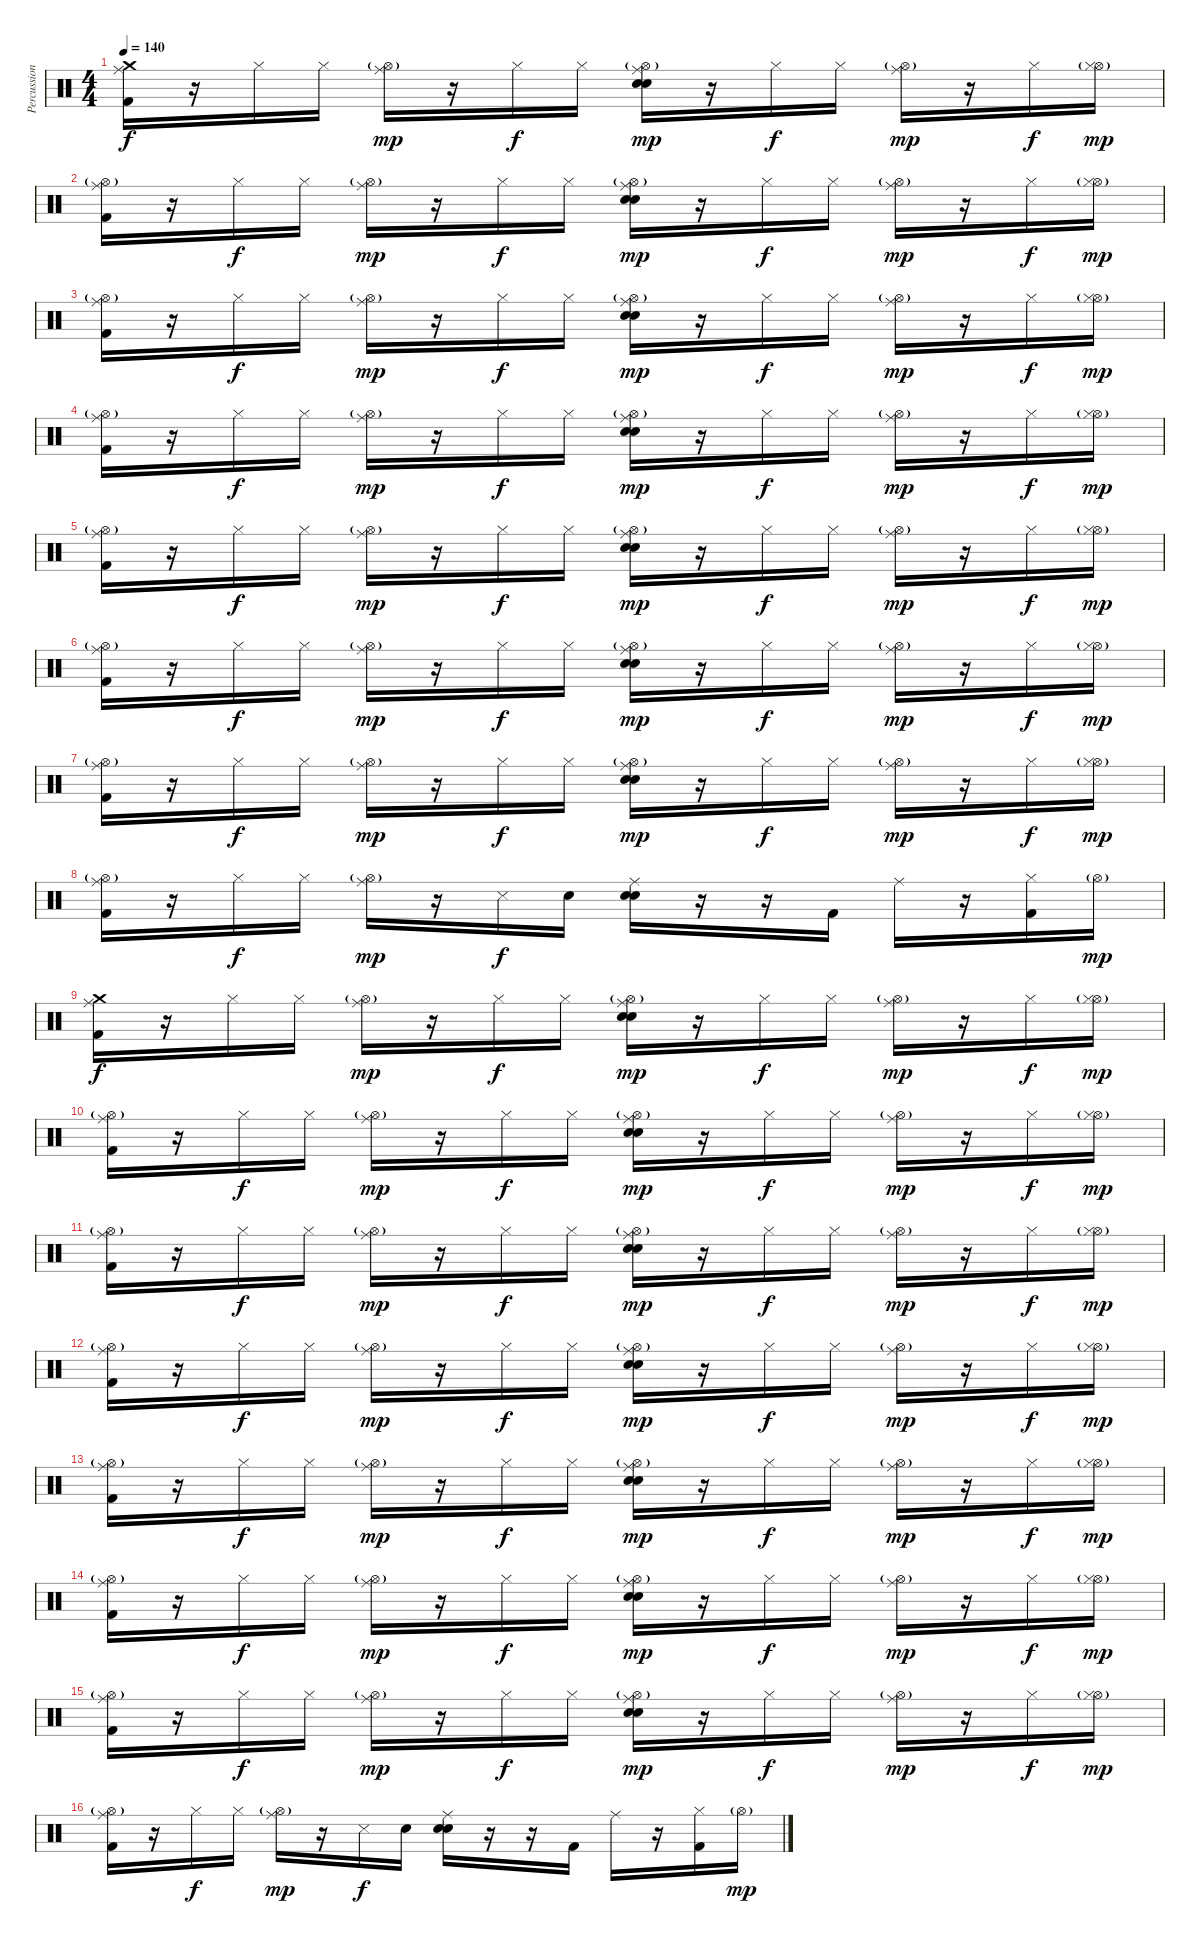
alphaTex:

\track ("Percussion" "Percussion") {instrument percussion}
\staff {score}
\articulation defaults
\ts (4 4)
\tempo 140
\clef neutral
\ks c
("Crash medium (hit)" "Ride (middle)" "Kick (hit) 2").16{dy f} r.16 "Hi-Hat (closed)".16 "Hi-Hat (closed)".16 ("Hi-Hat (open)"{g} "Ride (middle)").16{dy mp} r.16 "Hi-Hat (closed)".16{dy f} "Hi-Hat (closed)".16 ("Hi-Hat (open)"{g} "Ride (middle)" "Hand Clap (hit)" "Snare (hit) 2").16{dy mp} r.16 "Hi-Hat (closed)".16{dy f} "Hi-Hat (closed)".16 ("Hi-Hat (open)"{g} "Ride (middle)").16{dy mp} r.16 "Hi-Hat (closed)".16{dy f} ("Hi-Hat (open)"{g} "Hi-Hat (closed)").16{dy mp} |
("Hi-Hat (open)"{g} "Ride (middle)" "Kick (hit) 2").16 r.16 "Hi-Hat (closed)".16{dy f} "Hi-Hat (closed)".16 ("Hi-Hat (open)"{g} "Ride (middle)").16{dy mp} r.16 "Hi-Hat (closed)".16{dy f} "Hi-Hat (closed)".16 ("Hi-Hat (open)"{g} "Ride (middle)" "Hand Clap (hit)" "Snare (hit) 2").16{dy mp} r.16 "Hi-Hat (closed)".16{dy f} "Hi-Hat (closed)".16 ("Hi-Hat (open)"{g} "Ride (middle)").16{dy mp} r.16 "Hi-Hat (closed)".16{dy f} ("Hi-Hat (open)"{g} "Hi-Hat (closed)").16{dy mp} |
("Hi-Hat (open)"{g} "Ride (middle)" "Kick (hit) 2").16 r.16 "Hi-Hat (closed)".16{dy f} "Hi-Hat (closed)".16 ("Hi-Hat (open)"{g} "Ride (middle)").16{dy mp} r.16 "Hi-Hat (closed)".16{dy f} "Hi-Hat (closed)".16 ("Hi-Hat (open)"{g} "Ride (middle)" "Hand Clap (hit)" "Snare (hit) 2").16{dy mp} r.16 "Hi-Hat (closed)".16{dy f} "Hi-Hat (closed)".16 ("Hi-Hat (open)"{g} "Ride (middle)").16{dy mp} r.16 "Hi-Hat (closed)".16{dy f} ("Hi-Hat (open)"{g} "Hi-Hat (closed)").16{dy mp} |
("Hi-Hat (open)"{g} "Ride (middle)" "Kick (hit) 2").16 r.16 "Hi-Hat (closed)".16{dy f} "Hi-Hat (closed)".16 ("Hi-Hat (open)"{g} "Ride (middle)").16{dy mp} r.16 "Hi-Hat (closed)".16{dy f} "Hi-Hat (closed)".16 ("Hi-Hat (open)"{g} "Ride (middle)" "Hand Clap (hit)" "Snare (hit) 2").16{dy mp} r.16 "Hi-Hat (closed)".16{dy f} "Hi-Hat (closed)".16 ("Hi-Hat (open)"{g} "Ride (middle)").16{dy mp} r.16 "Hi-Hat (closed)".16{dy f} ("Hi-Hat (open)"{g} "Hi-Hat (closed)").16{dy mp} |
("Hi-Hat (open)"{g} "Ride (middle)" "Kick (hit) 2").16 r.16 "Hi-Hat (closed)".16{dy f} "Hi-Hat (closed)".16 ("Hi-Hat (open)"{g} "Ride (middle)").16{dy mp} r.16 "Hi-Hat (closed)".16{dy f} "Hi-Hat (closed)".16 ("Hi-Hat (open)"{g} "Ride (middle)" "Hand Clap (hit)" "Snare (hit) 2").16{dy mp} r.16 "Hi-Hat (closed)".16{dy f} "Hi-Hat (closed)".16 ("Hi-Hat (open)"{g} "Ride (middle)").16{dy mp} r.16 "Hi-Hat (closed)".16{dy f} ("Hi-Hat (open)"{g} "Hi-Hat (closed)").16{dy mp} |
("Hi-Hat (open)"{g} "Ride (middle)" "Kick (hit) 2").16 r.16 "Hi-Hat (closed)".16{dy f} "Hi-Hat (closed)".16 ("Hi-Hat (open)"{g} "Ride (middle)").16{dy mp} r.16 "Hi-Hat (closed)".16{dy f} "Hi-Hat (closed)".16 ("Hi-Hat (open)"{g} "Ride (middle)" "Hand Clap (hit)" "Snare (hit) 2").16{dy mp} r.16 "Hi-Hat (closed)".16{dy f} "Hi-Hat (closed)".16 ("Hi-Hat (open)"{g} "Ride (middle)").16{dy mp} r.16 "Hi-Hat (closed)".16{dy f} ("Hi-Hat (open)"{g} "Hi-Hat (closed)").16{dy mp} |
("Hi-Hat (open)"{g} "Ride (middle)" "Kick (hit) 2").16 r.16 "Hi-Hat (closed)".16{dy f} "Hi-Hat (closed)".16 ("Hi-Hat (open)"{g} "Ride (middle)").16{dy mp} r.16 "Hi-Hat (closed)".16{dy f} "Hi-Hat (closed)".16 ("Hi-Hat (open)"{g} "Ride (middle)" "Hand Clap (hit)" "Snare (hit) 2").16{dy mp} r.16 "Hi-Hat (closed)".16{dy f} "Hi-Hat (closed)".16 ("Hi-Hat (open)"{g} "Ride (middle)").16{dy mp} r.16 "Hi-Hat (closed)".16{dy f} ("Hi-Hat (open)"{g} "Hi-Hat (closed)").16{dy mp} |
("Hi-Hat (open)"{g} "Ride (middle)" "Kick (hit) 2").16 r.16 "Hi-Hat (closed)".16{dy f} "Hi-Hat (closed)".16 ("Hi-Hat (open)"{g} "Ride (middle)").16{dy mp} r.16 "Snare (side stick) 3".16{dy f} "Hand Clap (hit)".16 ("Ride (middle)" "Snare (hit) 2" "Hand Clap (hit)").16 r.16 r.16 "Kick (hit) 2".16 "Ride (middle)".16 r.16 ("Hi-Hat (closed)" "Kick (hit) 2").16 "Hi-Hat (open)"{g}.16{dy mp} |
("Crash medium (hit)" "Ride (middle)" "Kick (hit) 2").16{dy f} r.16 "Hi-Hat (closed)".16 "Hi-Hat (closed)".16 ("Hi-Hat (open)"{g} "Ride (middle)").16{dy mp} r.16 "Hi-Hat (closed)".16{dy f} "Hi-Hat (closed)".16 ("Hi-Hat (open)"{g} "Ride (middle)" "Hand Clap (hit)" "Snare (hit) 2").16{dy mp} r.16 "Hi-Hat (closed)".16{dy f} "Hi-Hat (closed)".16 ("Hi-Hat (open)"{g} "Ride (middle)").16{dy mp} r.16 "Hi-Hat (closed)".16{dy f} ("Hi-Hat (open)"{g} "Hi-Hat (closed)").16{dy mp} |
("Hi-Hat (open)"{g} "Ride (middle)" "Kick (hit) 2").16 r.16 "Hi-Hat (closed)".16{dy f} "Hi-Hat (closed)".16 ("Hi-Hat (open)"{g} "Ride (middle)").16{dy mp} r.16 "Hi-Hat (closed)".16{dy f} "Hi-Hat (closed)".16 ("Hi-Hat (open)"{g} "Ride (middle)" "Hand Clap (hit)" "Snare (hit) 2").16{dy mp} r.16 "Hi-Hat (closed)".16{dy f} "Hi-Hat (closed)".16 ("Hi-Hat (open)"{g} "Ride (middle)").16{dy mp} r.16 "Hi-Hat (closed)".16{dy f} ("Hi-Hat (open)"{g} "Hi-Hat (closed)").16{dy mp} |
("Hi-Hat (open)"{g} "Ride (middle)" "Kick (hit) 2").16 r.16 "Hi-Hat (closed)".16{dy f} "Hi-Hat (closed)".16 ("Hi-Hat (open)"{g} "Ride (middle)").16{dy mp} r.16 "Hi-Hat (closed)".16{dy f} "Hi-Hat (closed)".16 ("Hi-Hat (open)"{g} "Ride (middle)" "Hand Clap (hit)" "Snare (hit) 2").16{dy mp} r.16 "Hi-Hat (closed)".16{dy f} "Hi-Hat (closed)".16 ("Hi-Hat (open)"{g} "Ride (middle)").16{dy mp} r.16 "Hi-Hat (closed)".16{dy f} ("Hi-Hat (open)"{g} "Hi-Hat (closed)").16{dy mp} |
("Hi-Hat (open)"{g} "Ride (middle)" "Kick (hit) 2").16 r.16 "Hi-Hat (closed)".16{dy f} "Hi-Hat (closed)".16 ("Hi-Hat (open)"{g} "Ride (middle)").16{dy mp} r.16 "Hi-Hat (closed)".16{dy f} "Hi-Hat (closed)".16 ("Hi-Hat (open)"{g} "Ride (middle)" "Hand Clap (hit)" "Snare (hit) 2").16{dy mp} r.16 "Hi-Hat (closed)".16{dy f} "Hi-Hat (closed)".16 ("Hi-Hat (open)"{g} "Ride (middle)").16{dy mp} r.16 "Hi-Hat (closed)".16{dy f} ("Hi-Hat (open)"{g} "Hi-Hat (closed)").16{dy mp} |
("Hi-Hat (open)"{g} "Ride (middle)" "Kick (hit) 2").16 r.16 "Hi-Hat (closed)".16{dy f} "Hi-Hat (closed)".16 ("Hi-Hat (open)"{g} "Ride (middle)").16{dy mp} r.16 "Hi-Hat (closed)".16{dy f} "Hi-Hat (closed)".16 ("Hi-Hat (open)"{g} "Ride (middle)" "Hand Clap (hit)" "Snare (hit) 2").16{dy mp} r.16 "Hi-Hat (closed)".16{dy f} "Hi-Hat (closed)".16 ("Hi-Hat (open)"{g} "Ride (middle)").16{dy mp} r.16 "Hi-Hat (closed)".16{dy f} ("Hi-Hat (open)"{g} "Hi-Hat (closed)").16{dy mp} |
("Hi-Hat (open)"{g} "Ride (middle)" "Kick (hit) 2").16 r.16 "Hi-Hat (closed)".16{dy f} "Hi-Hat (closed)".16 ("Hi-Hat (open)"{g} "Ride (middle)").16{dy mp} r.16 "Hi-Hat (closed)".16{dy f} "Hi-Hat (closed)".16 ("Hi-Hat (open)"{g} "Ride (middle)" "Hand Clap (hit)" "Snare (hit) 2").16{dy mp} r.16 "Hi-Hat (closed)".16{dy f} "Hi-Hat (closed)".16 ("Hi-Hat (open)"{g} "Ride (middle)").16{dy mp} r.16 "Hi-Hat (closed)".16{dy f} ("Hi-Hat (open)"{g} "Hi-Hat (closed)").16{dy mp} |
("Hi-Hat (open)"{g} "Ride (middle)" "Kick (hit) 2").16 r.16 "Hi-Hat (closed)".16{dy f} "Hi-Hat (closed)".16 ("Hi-Hat (open)"{g} "Ride (middle)").16{dy mp} r.16 "Hi-Hat (closed)".16{dy f} "Hi-Hat (closed)".16 ("Hi-Hat (open)"{g} "Ride (middle)" "Hand Clap (hit)" "Snare (hit) 2").16{dy mp} r.16 "Hi-Hat (closed)".16{dy f} "Hi-Hat (closed)".16 ("Hi-Hat (open)"{g} "Ride (middle)").16{dy mp} r.16 "Hi-Hat (closed)".16{dy f} ("Hi-Hat (open)"{g} "Hi-Hat (closed)").16{dy mp} |
("Hi-Hat (open)"{g} "Ride (middle)" "Kick (hit) 2").16 r.16 "Hi-Hat (closed)".16{dy f} "Hi-Hat (closed)".16 ("Hi-Hat (open)"{g} "Ride (middle)").16{dy mp} r.16 "Snare (side stick) 3".16{dy f} "Hand Clap (hit)".16 ("Ride (middle)" "Snare (hit) 2" "Hand Clap (hit)").16 r.16 r.16 "Kick (hit) 2".16 "Ride (middle)".16 r.16 ("Hi-Hat (closed)" "Kick (hit) 2").16 "Hi-Hat (open)"{g}.16{dy mp}
